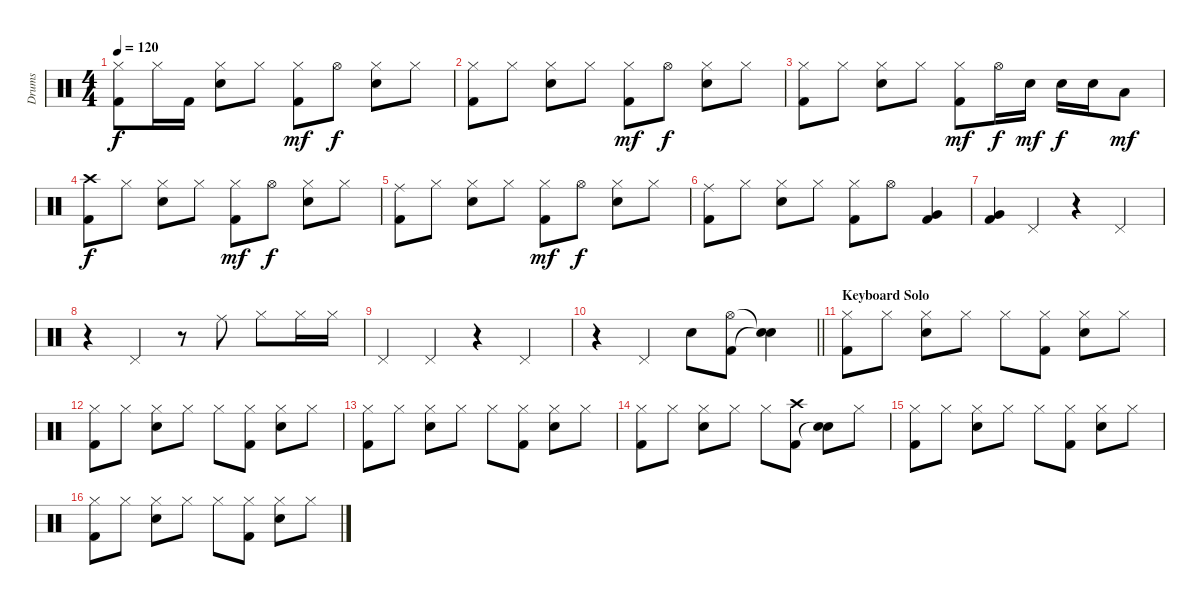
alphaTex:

\track ("Drums" "Drums") {instrument percussion}
\staff {score}
\articulation defaults
\ts (4 4)
\tempo 120
\clef neutral
\ks c
("Hi-Hat (closed)" "Kick (hit) 2").8{dy f} "Hi-Hat (closed)".16 "Kick (hit) 2".16 ("Hi-Hat (closed)" "Snare (hit) 2").8 "Hi-Hat (closed)".8 ("Hi-Hat (closed)" "Kick (hit) 2").8{dy mf} "Hi-Hat (open)".8{dy f} ("Hi-Hat (closed)" "Snare (hit) 2").8 "Hi-Hat (closed)".8 |
("Hi-Hat (closed)" "Kick (hit) 2").8 "Hi-Hat (closed)".8 ("Hi-Hat (closed)" "Snare (hit) 2").8 "Hi-Hat (closed)".8 ("Hi-Hat (closed)" "Kick (hit) 2").8{dy mf} "Hi-Hat (open)".8{dy f} ("Hi-Hat (closed)" "Snare (hit) 2").8 "Hi-Hat (closed)".8 |
("Hi-Hat (closed)" "Kick (hit) 2").8 "Hi-Hat (closed)".8 ("Hi-Hat (closed)" "Snare (hit) 2").8 "Hi-Hat (closed)".8 ("Hi-Hat (closed)" "Kick (hit) 2").8{dy mf} "Hi-Hat (open)".16{dy f} "Snare (hit) 2".16{dy mf} "Snare (hit) 2".16{dy f} "Snare (hit) 2".16 "Low Tom (hit)".8{dy mf} |
("Crash high (hit)" "Kick (hit) 2").8{dy f} "Hi-Hat (closed)".8 ("Hi-Hat (closed)" "Snare (hit) 2").8 "Hi-Hat (closed)".8 ("Hi-Hat (closed)" "Kick (hit) 2").8{dy mf} "Hi-Hat (open)".8{dy f} ("Hi-Hat (closed)" "Snare (hit) 2").8 "Hi-Hat (closed)".8 |
("Ride (middle)" "Kick (hit) 2").8 "Hi-Hat (closed)".8 ("Hi-Hat (closed)" "Snare (hit) 2").8 "Hi-Hat (closed)".8 ("Hi-Hat (closed)" "Kick (hit) 2").8{dy mf} "Hi-Hat (open)".8{dy f} ("Hi-Hat (closed)" "Snare (hit) 2").8 "Hi-Hat (closed)".8 |
("Ride (middle)" "Kick (hit) 2").8 "Hi-Hat (closed)".8 ("Hi-Hat (closed)" "Snare (hit) 2").8 "Hi-Hat (closed)".8 ("Hi-Hat (closed)" "Kick (hit) 2").8 "Hi-Hat (open)".8 ("Very Low Tom (hit)" "Kick (hit) 2").4 |
("Very Low Tom (hit)" "Kick (hit) 2").4 "Pedal Hi-Hat (hit)".4 r.4 "Pedal Hi-Hat (hit)".4 |
r.4 "Pedal Hi-Hat (hit)".4 r.8 "Ride (middle)".8 "Hi-Hat (closed)".8 "Hi-Hat (closed)".16 "Hi-Hat (closed)".16 |
"Pedal Hi-Hat (hit)".4 "Pedal Hi-Hat (hit)".4 r.4 "Pedal Hi-Hat (hit)".4 |
\barLineRight lightlight
r.4 "Pedal Hi-Hat (hit)".4 "Snare (hit) 2".8 ("Hi-Hat (open)" "Kick (hit) 2").8 ("Snare (hit)"{t} "Snare (hit)"{t}).4 |
\section ("" "Keyboard Solo")
("Hi-Hat (closed)" "Kick (hit) 2").8 "Hi-Hat (closed)".8 ("Hi-Hat (closed)" "Snare (hit) 2").8 "Hi-Hat (closed)".8 "Hi-Hat (closed)".8 ("Hi-Hat (closed)" "Kick (hit) 2").8 ("Hi-Hat (closed)" "Snare (hit) 2").8 "Hi-Hat (closed)".8 |
("Hi-Hat (closed)" "Kick (hit) 2").8 "Hi-Hat (closed)".8 ("Hi-Hat (closed)" "Snare (hit) 2").8 "Hi-Hat (closed)".8 "Hi-Hat (closed)".8 ("Hi-Hat (closed)" "Kick (hit) 2").8 ("Hi-Hat (closed)" "Snare (hit) 2").8 "Hi-Hat (closed)".8 |
("Hi-Hat (closed)" "Kick (hit) 2").8 "Hi-Hat (closed)".8 ("Hi-Hat (closed)" "Snare (hit) 2").8 "Hi-Hat (closed)".8 "Hi-Hat (closed)".8 ("Hi-Hat (closed)" "Kick (hit) 2").8 ("Hi-Hat (closed)" "Snare (hit) 2").8 "Hi-Hat (closed)".8 |
("Hi-Hat (closed)" "Kick (hit) 2").8 "Hi-Hat (closed)".8 ("Hi-Hat (closed)" "Snare (hit) 2").8 "Hi-Hat (closed)".8 "Hi-Hat (closed)".8 ("Crash high (hit)" "Kick (hit) 2").8 ("Snare (hit) 2" "Snare (hit)"{t}).8 "Hi-Hat (closed)".8 |
("Hi-Hat (closed)" "Kick (hit) 2").8 "Hi-Hat (closed)".8 ("Hi-Hat (closed)" "Snare (hit) 2").8 "Hi-Hat (closed)".8 "Hi-Hat (closed)".8 ("Hi-Hat (closed)" "Kick (hit) 2").8 ("Hi-Hat (closed)" "Snare (hit) 2").8 "Hi-Hat (closed)".8 |
("Hi-Hat (closed)" "Kick (hit) 2").8 "Hi-Hat (closed)".8 ("Hi-Hat (closed)" "Snare (hit) 2").8 "Hi-Hat (closed)".8 "Hi-Hat (closed)".8 ("Hi-Hat (closed)" "Kick (hit) 2").8 ("Hi-Hat (closed)" "Snare (hit) 2").8 "Hi-Hat (closed)".8
